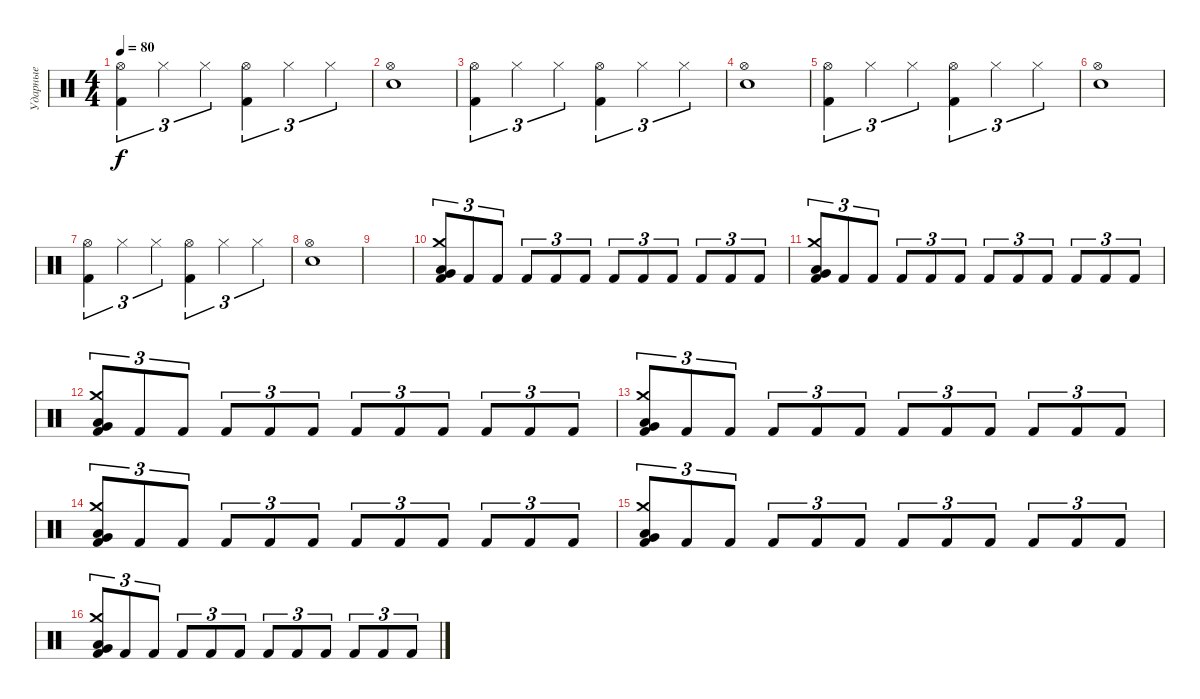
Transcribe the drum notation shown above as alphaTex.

\track ("Ударные" "Ударные") {instrument percussion}
\staff {score}
\articulation defaults
\ts (4 4)
\tempo 80
\clef neutral
\ks c
("Hi-Hat (open)" "Kick (hit) 2").4{tu (3 2) dy f} "Hi-Hat (closed)".4{tu (3 2)} "Hi-Hat (closed)".4{tu (3 2)} ("Hi-Hat (open)" "Kick (hit) 2").4{tu (3 2)} "Hi-Hat (closed)".4{tu (3 2)} "Hi-Hat (closed)".4{tu (3 2)} |
("Snare (hit) 2" "Hi-Hat (open)").1 |
("Hi-Hat (open)" "Kick (hit) 2").4{tu (3 2)} "Hi-Hat (closed)".4{tu (3 2)} "Hi-Hat (closed)".4{tu (3 2)} ("Hi-Hat (open)" "Kick (hit) 2").4{tu (3 2)} "Hi-Hat (closed)".4{tu (3 2)} "Hi-Hat (closed)".4{tu (3 2)} |
("Snare (hit) 2" "Hi-Hat (open)").1 |
("Hi-Hat (open)" "Kick (hit) 2").4{tu (3 2)} "Hi-Hat (closed)".4{tu (3 2)} "Hi-Hat (closed)".4{tu (3 2)} ("Hi-Hat (open)" "Kick (hit) 2").4{tu (3 2)} "Hi-Hat (closed)".4{tu (3 2)} "Hi-Hat (closed)".4{tu (3 2)} |
("Snare (hit) 2" "Hi-Hat (open)").1 |
("Hi-Hat (open)" "Kick (hit) 2").4{tu (3 2)} "Hi-Hat (closed)".4{tu (3 2)} "Hi-Hat (closed)".4{tu (3 2)} ("Hi-Hat (open)" "Kick (hit) 2").4{tu (3 2)} "Hi-Hat (closed)".4{tu (3 2)} "Hi-Hat (closed)".4{tu (3 2)} |
("Snare (hit) 2" "Hi-Hat (open)").1 |
|
("Crash medium (hit)" "Low Floor Tom (hit)" "Kick (hit) 2" "Very Low Tom (hit)").8{tu (3 2)} "Kick (hit) 2".8{tu (3 2)} "Kick (hit) 2".8{tu (3 2)} "Kick (hit) 2".8{tu (3 2)} "Kick (hit) 2".8{tu (3 2)} "Kick (hit) 2".8{tu (3 2)} "Kick (hit) 2".8{tu (3 2)} "Kick (hit) 2".8{tu (3 2)} "Kick (hit) 2".8{tu (3 2)} "Kick (hit) 2".8{tu (3 2)} "Kick (hit) 2".8{tu (3 2)} "Kick (hit) 2".8{tu (3 2)} |
("Crash medium (hit)" "Low Floor Tom (hit)" "Kick (hit) 2" "Very Low Tom (hit)").8{tu (3 2)} "Kick (hit) 2".8{tu (3 2)} "Kick (hit) 2".8{tu (3 2)} "Kick (hit) 2".8{tu (3 2)} "Kick (hit) 2".8{tu (3 2)} "Kick (hit) 2".8{tu (3 2)} "Kick (hit) 2".8{tu (3 2)} "Kick (hit) 2".8{tu (3 2)} "Kick (hit) 2".8{tu (3 2)} "Kick (hit) 2".8{tu (3 2)} "Kick (hit) 2".8{tu (3 2)} "Kick (hit) 2".8{tu (3 2)} |
("Crash medium (hit)" "Low Floor Tom (hit)" "Kick (hit) 2" "Very Low Tom (hit)").8{tu (3 2)} "Kick (hit) 2".8{tu (3 2)} "Kick (hit) 2".8{tu (3 2)} "Kick (hit) 2".8{tu (3 2)} "Kick (hit) 2".8{tu (3 2)} "Kick (hit) 2".8{tu (3 2)} "Kick (hit) 2".8{tu (3 2)} "Kick (hit) 2".8{tu (3 2)} "Kick (hit) 2".8{tu (3 2)} "Kick (hit) 2".8{tu (3 2)} "Kick (hit) 2".8{tu (3 2)} "Kick (hit) 2".8{tu (3 2)} |
("Crash medium (hit)" "Low Floor Tom (hit)" "Kick (hit) 2" "Very Low Tom (hit)").8{tu (3 2)} "Kick (hit) 2".8{tu (3 2)} "Kick (hit) 2".8{tu (3 2)} "Kick (hit) 2".8{tu (3 2)} "Kick (hit) 2".8{tu (3 2)} "Kick (hit) 2".8{tu (3 2)} "Kick (hit) 2".8{tu (3 2)} "Kick (hit) 2".8{tu (3 2)} "Kick (hit) 2".8{tu (3 2)} "Kick (hit) 2".8{tu (3 2)} "Kick (hit) 2".8{tu (3 2)} "Kick (hit) 2".8{tu (3 2)} |
("Crash medium (hit)" "Low Floor Tom (hit)" "Kick (hit) 2" "Very Low Tom (hit)").8{tu (3 2)} "Kick (hit) 2".8{tu (3 2)} "Kick (hit) 2".8{tu (3 2)} "Kick (hit) 2".8{tu (3 2)} "Kick (hit) 2".8{tu (3 2)} "Kick (hit) 2".8{tu (3 2)} "Kick (hit) 2".8{tu (3 2)} "Kick (hit) 2".8{tu (3 2)} "Kick (hit) 2".8{tu (3 2)} "Kick (hit) 2".8{tu (3 2)} "Kick (hit) 2".8{tu (3 2)} "Kick (hit) 2".8{tu (3 2)} |
("Crash medium (hit)" "Low Floor Tom (hit)" "Kick (hit) 2" "Very Low Tom (hit)").8{tu (3 2)} "Kick (hit) 2".8{tu (3 2)} "Kick (hit) 2".8{tu (3 2)} "Kick (hit) 2".8{tu (3 2)} "Kick (hit) 2".8{tu (3 2)} "Kick (hit) 2".8{tu (3 2)} "Kick (hit) 2".8{tu (3 2)} "Kick (hit) 2".8{tu (3 2)} "Kick (hit) 2".8{tu (3 2)} "Kick (hit) 2".8{tu (3 2)} "Kick (hit) 2".8{tu (3 2)} "Kick (hit) 2".8{tu (3 2)} |
("Crash medium (hit)" "Low Floor Tom (hit)" "Kick (hit) 2" "Very Low Tom (hit)").8{tu (3 2)} "Kick (hit) 2".8{tu (3 2)} "Kick (hit) 2".8{tu (3 2)} "Kick (hit) 2".8{tu (3 2)} "Kick (hit) 2".8{tu (3 2)} "Kick (hit) 2".8{tu (3 2)} "Kick (hit) 2".8{tu (3 2)} "Kick (hit) 2".8{tu (3 2)} "Kick (hit) 2".8{tu (3 2)} "Kick (hit) 2".8{tu (3 2)} "Kick (hit) 2".8{tu (3 2)} "Kick (hit) 2".8{tu (3 2)}
